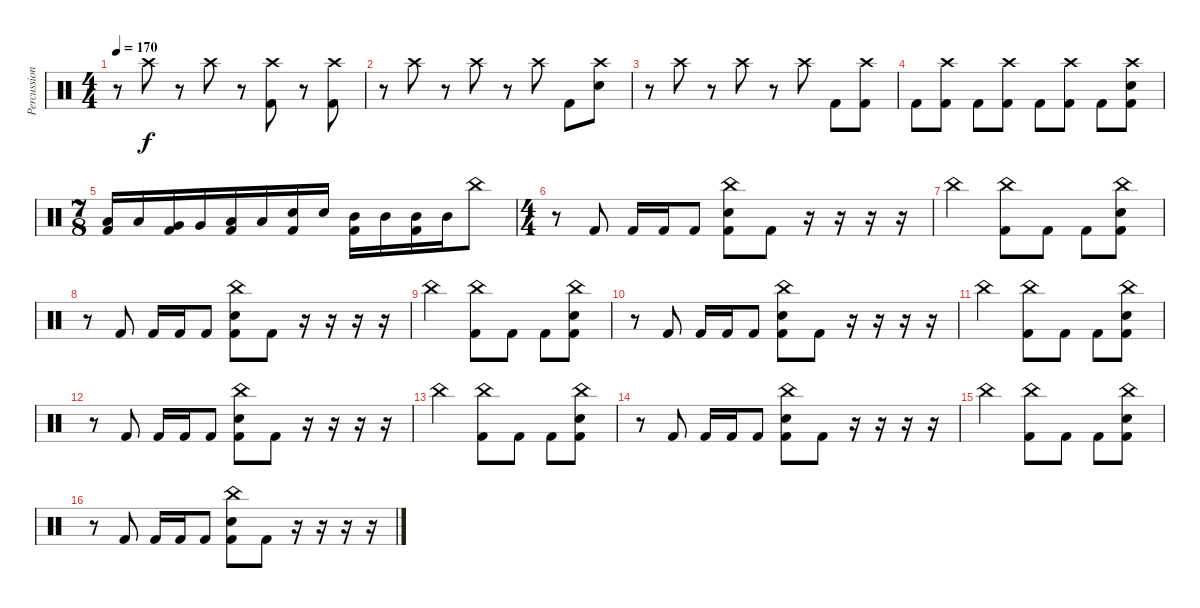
\track ("Percussions" "Percussion") {instrument percussion}
\staff {score}
\articulation defaults
\ts (4 4)
\tempo 170
\clef neutral
\ks c
r.8{dy f} "Crash high (hit)".8 r.8 "Crash high (hit)".8 r.8 ("Crash high (hit)" "Kick (hit) 2").8 r.8 ("Crash high (hit)" "Kick (hit) 2").8 |
r.8 "Crash high (hit)".8 r.8 "Crash high (hit)".8 r.8 "Crash high (hit)".8 "Kick (hit) 2".8 ("Crash high (hit)" "Electric Snare (hit)").8 |
r.8 "Crash high (hit)".8 r.8 "Crash high (hit)".8 r.8 "Crash high (hit)".8 "Kick (hit) 2".8 ("Crash high (hit)" "Kick (hit) 2").8 |
"Kick (hit) 2".8 ("Crash high (hit)" "Kick (hit) 2").8 "Kick (hit) 2".8 ("Crash high (hit)" "Kick (hit) 2").8 "Kick (hit) 2".8 ("Crash high (hit)" "Kick (hit) 2").8 "Kick (hit) 2".8 ("Crash high (hit)" "Electric Snare (hit)" "Kick (hit) 2").8 |
\ts (7 8)
("Low Tom (hit)" "Kick (hit) 2").16 "Low Tom (hit)".16 ("Very Low Tom (hit)" "Kick (hit) 2").16 "Very Low Tom (hit)".16 ("Low Floor Tom (hit)" "Kick (hit) 2").16 "Low Floor Tom (hit)".16 ("Electric Snare (hit)" "Kick (hit) 2").16 "Electric Snare (hit)".16 ("Mid Tom (hit)" "Kick (hit) 2").16 "Mid Tom (hit)".16 ("Mid Tom (hit)" "Kick (hit) 2").16 "Mid Tom (hit)".16 "China (hit)".8 |
\ts (4 4)
r.8 "Kick (hit) 2".8 "Kick (hit) 2".16 "Kick (hit) 2".16 "Kick (hit) 2".8 ("China (hit)" "Electric Snare (hit)" "Kick (hit) 2").8 "Kick (hit) 2".8 r.16 r.16 r.16 r.16 |
"China (hit)".2 ("China (hit)" "Kick (hit) 2").8 "Kick (hit) 2".8 "Kick (hit) 2".8 ("China (hit)" "Electric Snare (hit)" "Kick (hit) 2").8 |
r.8 "Kick (hit) 2".8 "Kick (hit) 2".16 "Kick (hit) 2".16 "Kick (hit) 2".8 ("China (hit)" "Electric Snare (hit)" "Kick (hit) 2").8 "Kick (hit) 2".8 r.16 r.16 r.16 r.16 |
"China (hit)".2 ("China (hit)" "Kick (hit) 2").8 "Kick (hit) 2".8 "Kick (hit) 2".8 ("China (hit)" "Electric Snare (hit)" "Kick (hit) 2").8 |
r.8 "Kick (hit) 2".8 "Kick (hit) 2".16 "Kick (hit) 2".16 "Kick (hit) 2".8 ("China (hit)" "Electric Snare (hit)" "Kick (hit) 2").8 "Kick (hit) 2".8 r.16 r.16 r.16 r.16 |
"China (hit)".2 ("China (hit)" "Kick (hit) 2").8 "Kick (hit) 2".8 "Kick (hit) 2".8 ("China (hit)" "Electric Snare (hit)" "Kick (hit) 2").8 |
r.8 "Kick (hit) 2".8 "Kick (hit) 2".16 "Kick (hit) 2".16 "Kick (hit) 2".8 ("China (hit)" "Electric Snare (hit)" "Kick (hit) 2").8 "Kick (hit) 2".8 r.16 r.16 r.16 r.16 |
"China (hit)".2 ("China (hit)" "Kick (hit) 2").8 "Kick (hit) 2".8 "Kick (hit) 2".8 ("China (hit)" "Electric Snare (hit)" "Kick (hit) 2").8 |
r.8 "Kick (hit) 2".8 "Kick (hit) 2".16 "Kick (hit) 2".16 "Kick (hit) 2".8 ("China (hit)" "Electric Snare (hit)" "Kick (hit) 2").8 "Kick (hit) 2".8 r.16 r.16 r.16 r.16 |
"China (hit)".2 ("China (hit)" "Kick (hit) 2").8 "Kick (hit) 2".8 "Kick (hit) 2".8 ("China (hit)" "Electric Snare (hit)" "Kick (hit) 2").8 |
r.8 "Kick (hit) 2".8 "Kick (hit) 2".16 "Kick (hit) 2".16 "Kick (hit) 2".8 ("China (hit)" "Electric Snare (hit)" "Kick (hit) 2").8 "Kick (hit) 2".8 r.16 r.16 r.16 r.16
